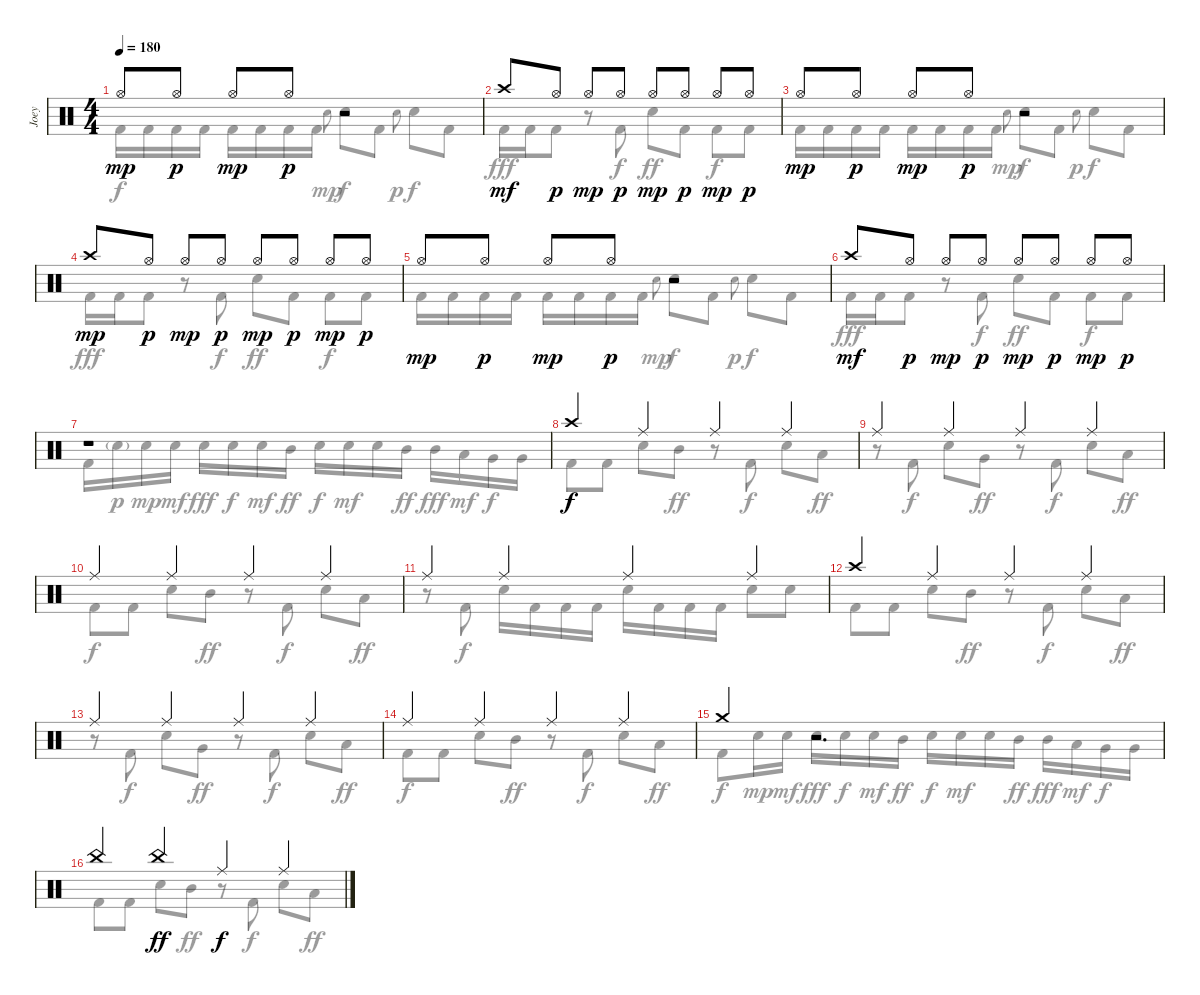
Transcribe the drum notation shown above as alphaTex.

\track ("Joey" "Joey") {instrument percussion}
\staff {score}
\articulation defaults
\voice
\ts (4 4)
\tempo 180
\clef neutral
\ks c "Hi-Hat (open)".8{dy mp} "Hi-Hat (open)".8{dy p} "Hi-Hat (open)".8{dy mp} "Hi-Hat (open)".8{dy p}
r.2 |
"Crash high (hit)".8{dy mf} "Hi-Hat (open)".8{dy p} "Hi-Hat (open)".8{dy mp} "Hi-Hat (open)".8{dy p} "Hi-Hat (open)".8{dy mp} "Hi-Hat (open)".8{dy p} "Hi-Hat (open)".8{dy mp} "Hi-Hat (open)".8{dy p} |
"Hi-Hat (open)".8{dy mp} "Hi-Hat (open)".8{dy p} "Hi-Hat (open)".8{dy mp} "Hi-Hat (open)".8{dy p} r.2 |
"Crash high (hit)".8{dy mp} "Hi-Hat (open)".8{dy p} "Hi-Hat (open)".8{dy mp} "Hi-Hat (open)".8{dy p} "Hi-Hat (open)".8{dy mp} "Hi-Hat (open)".8{dy p} "Hi-Hat (open)".8{dy mp} "Hi-Hat (open)".8{dy p} |
"Hi-Hat (open)".8{dy mp} "Hi-Hat (open)".8{dy p} "Hi-Hat (open)".8{dy mp} "Hi-Hat (open)".8{dy p} r.2 |
"Crash high (hit)".8{dy mf} "Hi-Hat (open)".8{dy p} "Hi-Hat (open)".8{dy mp} "Hi-Hat (open)".8{dy p} "Hi-Hat (open)".8{dy mp} "Hi-Hat (open)".8{dy p} "Hi-Hat (open)".8{dy mp} "Hi-Hat (open)".8{dy p} |
r.1 |
"Crash high (hit)".4{dy f} "Ride (middle)".4 "Ride (middle)".4 "Ride (middle)".4 |
"Ride (middle)".4 "Ride (middle)".4 "Ride (middle)".4 "Ride (middle)".4 |
"Ride (middle)".4 "Ride (middle)".4 "Ride (middle)".4 "Ride (middle)".4 |
"Ride (middle)".4 "Ride (middle)".4 "Ride (middle)".4 "Ride (middle)".4 |
"Crash high (hit)".4 "Ride (middle)".4 "Ride (middle)".4 "Ride (middle)".4 |
"Ride (middle)".4 "Ride (middle)".4 "Ride (middle)".4 "Ride (middle)".4 |
"Ride (middle)".4 "Ride (middle)".4 "Ride (middle)".4 "Ride (middle)".4 |
"Crash medium (hit)".4 r.2{d} |
"China (hit)".4 "China (hit)".4{dy ff} "Ride (middle)".4{dy f} "Ride (middle)".4
\voice
\clef neutral
\ottava regular
\simile none
\ks c "Kick (hit) 2".16{dy f} "Kick (hit) 2".16 "Kick (hit) 2".16 "Kick (hit) 2".16 "Kick (hit) 2".16 "Kick (hit) 2".16 "Kick (hit) 2".16 "Kick (hit) 2".16 "Electric Snare (hit)".8{gr onbeat dy mp} "Electric Snare (hit)".8{dy f} "Kick (hit) 2".8 "Electric Snare (hit)".8{gr onbeat dy p} "Electric Snare (hit)".8{dy f} "Kick (hit) 2".8
|
"Kick (hit) 2".16{dy fff} "Kick (hit) 2".16 "Kick (hit) 2".8 r.8 "Kick (hit) 2".8{dy f} "Electric Snare (hit)".8{dy ff} "Kick (hit) 2".8 "Kick (hit) 2".8{dy f} "Kick (hit) 2".8 |
"Kick (hit) 2".16 "Kick (hit) 2".16 "Kick (hit) 2".16 "Kick (hit) 2".16 "Kick (hit) 2".16 "Kick (hit) 2".16 "Kick (hit) 2".16 "Kick (hit) 2".16 "Electric Snare (hit)".8{gr onbeat dy mp} "Electric Snare (hit)".8{dy f} "Kick (hit) 2".8 "Electric Snare (hit)".8{gr onbeat dy p} "Electric Snare (hit)".8{dy f} "Kick (hit) 2".8 |
"Kick (hit) 2".16{dy fff} "Kick (hit) 2".16 "Kick (hit) 2".8 r.8 "Kick (hit) 2".8{dy f} "Electric Snare (hit)".8{dy ff} "Kick (hit) 2".8 "Kick (hit) 2".8{dy f} "Kick (hit) 2".8 |
"Kick (hit) 2".16 "Kick (hit) 2".16 "Kick (hit) 2".16 "Kick (hit) 2".16 "Kick (hit) 2".16 "Kick (hit) 2".16 "Kick (hit) 2".16 "Kick (hit) 2".16 "Electric Snare (hit)".8{gr onbeat dy mp} "Electric Snare (hit)".8{dy f} "Kick (hit) 2".8 "Electric Snare (hit)".8{gr onbeat dy p} "Electric Snare (hit)".8{dy f} "Kick (hit) 2".8 |
"Kick (hit) 2".16{dy fff} "Kick (hit) 2".16 "Kick (hit) 2".8 r.8 "Kick (hit) 2".8{dy f} "Electric Snare (hit)".8{dy ff} "Kick (hit) 2".8 "Kick (hit) 2".8{dy f} "Kick (hit) 2".8 |
"Kick (hit) 2".16 "Electric Snare (hit)"{g}.16{dy p} "Electric Snare (hit)".16{dy mp} "Electric Snare (hit)".16{dy mf} "Electric Snare (hit)".16{dy fff} "Electric Snare (hit)".16{dy f} "Electric Snare (hit)".16{dy mf} "Mid Tom (hit)".16{dy ff} "Electric Snare (hit)".16{dy f} "Electric Snare (hit)".16{dy mf} "Electric Snare (hit)".16 "Mid Tom (hit)".16{dy ff} "Mid Tom (hit)".16{dy fff} "Low Tom (hit)".16{dy mf} "Very Low Tom (hit)".16{dy f} "Very Low Tom (hit)".16 |
"Kick (hit) 2".8 "Kick (hit) 2".8 "Electric Snare (hit)".8 "Mid Tom (hit)".8{dy ff} r.8 "Kick (hit) 2".8{dy f} "Electric Snare (hit)".8 "Low Tom (hit)".8{dy ff} |
r.8 "Kick (hit) 2".8{dy f} "Electric Snare (hit)".8 "Very Low Tom (hit)".8{dy ff} r.8 "Kick (hit) 2".8{dy f} "Electric Snare (hit)".8 "Low Floor Tom (hit)".8{dy ff} |
"Kick (hit) 2".8{dy f} "Kick (hit) 2".8 "Electric Snare (hit)".8 "Mid Tom (hit)".8{dy ff} r.8 "Kick (hit) 2".8{dy f} "Electric Snare (hit)".8 "Low Tom (hit)".8{dy ff} |
r.8 "Kick (hit) 2".8{dy f} "Electric Snare (hit)".16 "Kick (hit) 2".16 "Kick (hit) 2".16 "Kick (hit) 2".16 "Electric Snare (hit)".16 "Kick (hit) 2".16 "Kick (hit) 2".16 "Kick (hit) 2".16 "Electric Snare (hit)".8 "Electric Snare (hit)".8 |
"Kick (hit) 2".8 "Kick (hit) 2".8 "Electric Snare (hit)".8 "Mid Tom (hit)".8{dy ff} r.8 "Kick (hit) 2".8{dy f} "Electric Snare (hit)".8 "Low Tom (hit)".8{dy ff} |
r.8 "Kick (hit) 2".8{dy f} "Electric Snare (hit)".8 "Very Low Tom (hit)".8{dy ff} r.8 "Kick (hit) 2".8{dy f} "Electric Snare (hit)".8 "Low Floor Tom (hit)".8{dy ff} |
"Kick (hit) 2".8{dy f} "Kick (hit) 2".8 "Electric Snare (hit)".8 "Mid Tom (hit)".8{dy ff} r.8 "Kick (hit) 2".8{dy f} "Electric Snare (hit)".8 "Low Tom (hit)".8{dy ff} |
"Kick (hit) 2".8{dy f} "Electric Snare (hit)".16{dy mp} "Electric Snare (hit)".16{dy mf} "Electric Snare (hit)".16{dy fff} "Electric Snare (hit)".16{dy f} "Electric Snare (hit)".16{dy mf} "Mid Tom (hit)".16{dy ff} "Electric Snare (hit)".16{dy f} "Electric Snare (hit)".16{dy mf} "Electric Snare (hit)".16 "Mid Tom (hit)".16{dy ff} "Mid Tom (hit)".16{dy fff} "Low Tom (hit)".16{dy mf} "Very Low Tom (hit)".16{dy f} "Very Low Tom (hit)".16 |
"Kick (hit) 2".8 "Kick (hit) 2".8 "Electric Snare (hit)".8 "Mid Tom (hit)".8{dy ff} r.8 "Kick (hit) 2".8{dy f} "Electric Snare (hit)".8 "Low Tom (hit)".8{dy ff}
